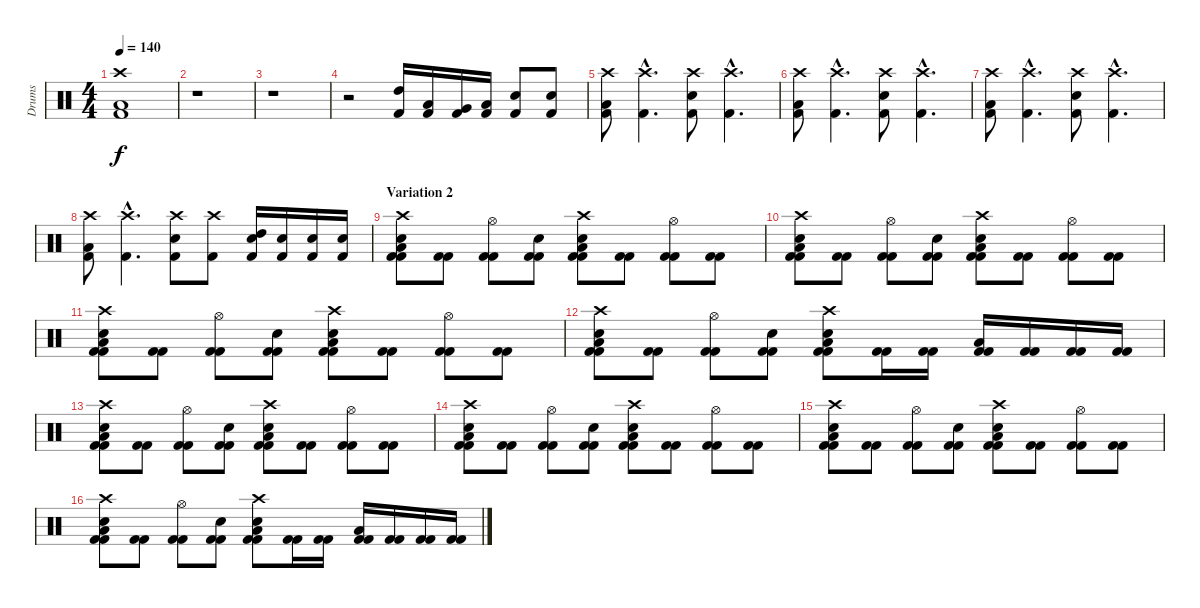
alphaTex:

\track ("Drums" "Drums") {instrument percussion}
\staff {score}
\articulation defaults
\ts (4 4)
\tempo 140
\clef neutral
\ks c
("Crash high (hit)" "Low Tom (hit)" "Kick (hit) 2").1{dy f} |
r.1 |
r.1 |
r.2 ("High Tom (hit)" "Kick (hit) 2").16 ("Low Tom (hit)" "Kick (hit) 2").16 ("Very Low Tom (hit)" "Kick (hit) 2").16 ("Low Tom (hit)" "Kick (hit) 2").16 ("Snare (hit) 2" "Kick (hit) 2").8 ("Snare (hit) 2" "Kick (hit) 2").8 |
("Crash high (hit)" "Low Tom (hit)" "Kick (hit) 2").8 ("Crash high (hit)"{hac} "Kick (hit) 2"{hac}).4{d} ("Crash high (hit)" "Snare (hit) 2" "Kick (hit) 2").8 ("Crash high (hit)"{hac} "Kick (hit) 2"{hac}).4{d} |
("Crash high (hit)" "Low Tom (hit)" "Kick (hit) 2").8 ("Crash high (hit)"{hac} "Kick (hit) 2"{hac}).4{d} ("Crash high (hit)" "Snare (hit) 2" "Kick (hit) 2").8 ("Crash high (hit)"{hac} "Kick (hit) 2"{hac}).4{d} |
("Crash high (hit)" "Low Tom (hit)" "Kick (hit) 2").8 ("Crash high (hit)"{hac} "Kick (hit) 2"{hac}).4{d} ("Crash high (hit)" "Snare (hit) 2" "Kick (hit) 2").8 ("Crash high (hit)"{hac} "Kick (hit) 2"{hac}).4{d} |
("Crash high (hit)" "Low Tom (hit)" "Kick (hit) 2").8 ("Crash high (hit)"{hac} "Kick (hit) 2"{hac}).4{d} ("Crash high (hit)" "Snare (hit) 2" "Kick (hit) 2").8 ("Crash high (hit)" "Kick (hit) 2").8 ("High Tom (hit)" "Snare (hit) 2" "Kick (hit) 2").16 ("Snare (hit) 2" "Kick (hit) 2").16 ("Snare (hit) 2" "Kick (hit) 2").16 ("Snare (hit) 2" "Kick (hit) 2").16 |
\section ("" "Variation 2")
("Crash high (hit)" "Low Tom (hit)" "Snare (hit) 2" "Kick (hit) 2" "Kick (hit) 2").8 ("Kick (hit) 2" "Kick (hit) 2").8 ("Hi-Hat (open)" "Kick (hit) 2" "Kick (hit) 2").8 ("Snare (hit) 2" "Kick (hit) 2" "Kick (hit) 2").8 ("Crash high (hit)" "Snare (hit) 2" "Low Tom (hit)" "Kick (hit) 2" "Kick (hit) 2").8 ("Kick (hit) 2" "Kick (hit) 2").8 ("Hi-Hat (open)" "Kick (hit) 2" "Kick (hit) 2").8 ("Kick (hit) 2" "Kick (hit) 2").8 |
("Crash high (hit)" "Low Tom (hit)" "Snare (hit) 2" "Kick (hit) 2" "Kick (hit) 2").8 ("Kick (hit) 2" "Kick (hit) 2").8 ("Hi-Hat (open)" "Kick (hit) 2" "Kick (hit) 2").8 ("Snare (hit) 2" "Kick (hit) 2" "Kick (hit) 2").8 ("Crash high (hit)" "Snare (hit) 2" "Low Tom (hit)" "Kick (hit) 2" "Kick (hit) 2").8 ("Kick (hit) 2" "Kick (hit) 2").8 ("Hi-Hat (open)" "Kick (hit) 2" "Kick (hit) 2").8 ("Kick (hit) 2" "Kick (hit) 2").8 |
("Crash high (hit)" "Low Tom (hit)" "Snare (hit) 2" "Kick (hit) 2" "Kick (hit) 2").8 ("Kick (hit) 2" "Kick (hit) 2").8 ("Hi-Hat (open)" "Kick (hit) 2" "Kick (hit) 2").8 ("Snare (hit) 2" "Kick (hit) 2" "Kick (hit) 2").8 ("Crash high (hit)" "Snare (hit) 2" "Low Tom (hit)" "Kick (hit) 2" "Kick (hit) 2").8 ("Kick (hit) 2" "Kick (hit) 2").8 ("Hi-Hat (open)" "Kick (hit) 2" "Kick (hit) 2").8 ("Kick (hit) 2" "Kick (hit) 2").8 |
("Crash high (hit)" "Low Tom (hit)" "Snare (hit) 2" "Kick (hit) 2" "Kick (hit) 2").8 ("Kick (hit) 2" "Kick (hit) 2").8 ("Hi-Hat (open)" "Kick (hit) 2" "Kick (hit) 2").8 ("Snare (hit) 2" "Kick (hit) 2" "Kick (hit) 2").8 ("Crash high (hit)" "Snare (hit) 2" "Low Tom (hit)" "Kick (hit) 2" "Kick (hit) 2").8 ("Kick (hit) 2" "Kick (hit) 2").16 ("Kick (hit) 2" "Kick (hit) 2").16 ("Low Tom (hit)" "Kick (hit) 2" "Kick (hit) 2").16 ("Kick (hit) 2" "Kick (hit) 2").16 ("Kick (hit) 2" "Kick (hit) 2").16 ("Kick (hit) 2" "Kick (hit) 2").16 |
("Crash high (hit)" "Low Tom (hit)" "Snare (hit) 2" "Kick (hit) 2" "Kick (hit) 2").8 ("Kick (hit) 2" "Kick (hit) 2").8 ("Hi-Hat (open)" "Kick (hit) 2" "Kick (hit) 2").8 ("Snare (hit) 2" "Kick (hit) 2" "Kick (hit) 2").8 ("Crash high (hit)" "Snare (hit) 2" "Low Tom (hit)" "Kick (hit) 2" "Kick (hit) 2").8 ("Kick (hit) 2" "Kick (hit) 2").8 ("Hi-Hat (open)" "Kick (hit) 2" "Kick (hit) 2").8 ("Kick (hit) 2" "Kick (hit) 2").8 |
("Crash high (hit)" "Low Tom (hit)" "Snare (hit) 2" "Kick (hit) 2" "Kick (hit) 2").8 ("Kick (hit) 2" "Kick (hit) 2").8 ("Hi-Hat (open)" "Kick (hit) 2" "Kick (hit) 2").8 ("Snare (hit) 2" "Kick (hit) 2" "Kick (hit) 2").8 ("Crash high (hit)" "Snare (hit) 2" "Low Tom (hit)" "Kick (hit) 2" "Kick (hit) 2").8 ("Kick (hit) 2" "Kick (hit) 2").8 ("Hi-Hat (open)" "Kick (hit) 2" "Kick (hit) 2").8 ("Kick (hit) 2" "Kick (hit) 2").8 |
("Crash high (hit)" "Low Tom (hit)" "Snare (hit) 2" "Kick (hit) 2" "Kick (hit) 2").8 ("Kick (hit) 2" "Kick (hit) 2").8 ("Hi-Hat (open)" "Kick (hit) 2" "Kick (hit) 2").8 ("Snare (hit) 2" "Kick (hit) 2" "Kick (hit) 2").8 ("Crash high (hit)" "Snare (hit) 2" "Low Tom (hit)" "Kick (hit) 2" "Kick (hit) 2").8 ("Kick (hit) 2" "Kick (hit) 2").8 ("Hi-Hat (open)" "Kick (hit) 2" "Kick (hit) 2").8 ("Kick (hit) 2" "Kick (hit) 2").8 |
("Crash high (hit)" "Low Tom (hit)" "Snare (hit) 2" "Kick (hit) 2" "Kick (hit) 2").8 ("Kick (hit) 2" "Kick (hit) 2").8 ("Hi-Hat (open)" "Kick (hit) 2" "Kick (hit) 2").8 ("Snare (hit) 2" "Kick (hit) 2" "Kick (hit) 2").8 ("Crash high (hit)" "Snare (hit) 2" "Low Tom (hit)" "Kick (hit) 2" "Kick (hit) 2").8 ("Kick (hit) 2" "Kick (hit) 2").16 ("Kick (hit) 2" "Kick (hit) 2").16 ("Low Tom (hit)" "Kick (hit) 2" "Kick (hit) 2").16 ("Kick (hit) 2" "Kick (hit) 2").16 ("Kick (hit) 2" "Kick (hit) 2").16 ("Kick (hit) 2" "Kick (hit) 2").16
